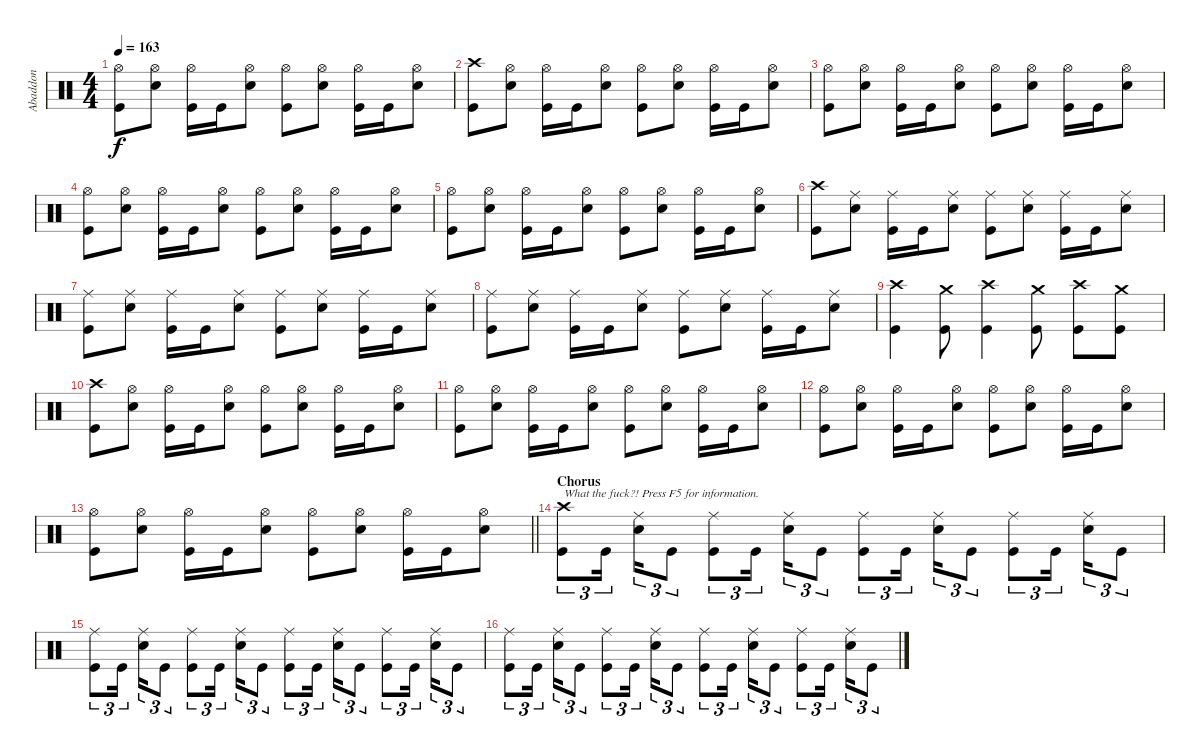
\track ("Abaddon" "Abaddon") {instrument percussion}
\staff {score}
\articulation defaults
\ts (4 4)
\tempo 163
\clef neutral
\ks c
("Hi-Hat (open)" "Kick (hit)").8{dy f} ("Hi-Hat (open)" "Electric Snare (hit)").8 ("Hi-Hat (open)" "Kick (hit)").16 "Kick (hit)".16 ("Hi-Hat (open)" "Electric Snare (hit)").8 ("Hi-Hat (open)" "Kick (hit)").8 ("Hi-Hat (open)" "Electric Snare (hit)").8 ("Hi-Hat (open)" "Kick (hit)").16 "Kick (hit)".16 ("Hi-Hat (open)" "Electric Snare (hit)").8 |
("Crash high (hit)" "Kick (hit)").8 ("Hi-Hat (open)" "Electric Snare (hit)").8 ("Hi-Hat (open)" "Kick (hit)").16 "Kick (hit)".16 ("Hi-Hat (open)" "Electric Snare (hit)").8 ("Hi-Hat (open)" "Kick (hit)").8 ("Hi-Hat (open)" "Electric Snare (hit)").8 ("Hi-Hat (open)" "Kick (hit)").16 "Kick (hit)".16 ("Hi-Hat (open)" "Electric Snare (hit)").8 |
("Hi-Hat (open)" "Kick (hit)").8 ("Hi-Hat (open)" "Electric Snare (hit)").8 ("Hi-Hat (open)" "Kick (hit)").16 "Kick (hit)".16 ("Hi-Hat (open)" "Electric Snare (hit)").8 ("Hi-Hat (open)" "Kick (hit)").8 ("Hi-Hat (open)" "Electric Snare (hit)").8 ("Hi-Hat (open)" "Kick (hit)").16 "Kick (hit)".16 ("Hi-Hat (open)" "Electric Snare (hit)").8 |
("Hi-Hat (open)" "Kick (hit)").8 ("Hi-Hat (open)" "Electric Snare (hit)").8 ("Hi-Hat (open)" "Kick (hit)").16 "Kick (hit)".16 ("Hi-Hat (open)" "Electric Snare (hit)").8 ("Hi-Hat (open)" "Kick (hit)").8 ("Hi-Hat (open)" "Electric Snare (hit)").8 ("Hi-Hat (open)" "Kick (hit)").16 "Kick (hit)".16 ("Hi-Hat (open)" "Electric Snare (hit)").8 |
("Hi-Hat (open)" "Kick (hit)").8 ("Hi-Hat (open)" "Electric Snare (hit)").8 ("Hi-Hat (open)" "Kick (hit)").16 "Kick (hit)".16 ("Hi-Hat (open)" "Electric Snare (hit)").8 ("Hi-Hat (open)" "Kick (hit)").8 ("Hi-Hat (open)" "Electric Snare (hit)").8 ("Hi-Hat (open)" "Kick (hit)").16 "Kick (hit)".16 ("Hi-Hat (open)" "Electric Snare (hit)").8 |
("Crash high (hit)" "Kick (hit)").8 ("Ride (middle)" "Electric Snare (hit)").8 ("Ride (middle)" "Kick (hit)").16 "Kick (hit)".16 ("Ride (middle)" "Electric Snare (hit)").8 ("Ride (middle)" "Kick (hit)").8 ("Ride (middle)" "Electric Snare (hit)").8 ("Ride (middle)" "Kick (hit)").16 "Kick (hit)".16 ("Ride (middle)" "Electric Snare (hit)").8 |
("Ride (middle)" "Kick (hit)").8 ("Ride (middle)" "Electric Snare (hit)").8 ("Ride (middle)" "Kick (hit)").16 "Kick (hit)".16 ("Ride (middle)" "Electric Snare (hit)").8 ("Ride (middle)" "Kick (hit)").8 ("Ride (middle)" "Electric Snare (hit)").8 ("Ride (middle)" "Kick (hit)").16 "Kick (hit)".16 ("Ride (middle)" "Electric Snare (hit)").8 |
("Ride (middle)" "Kick (hit)").8 ("Ride (middle)" "Electric Snare (hit)").8 ("Ride (middle)" "Kick (hit)").16 "Kick (hit)".16 ("Ride (middle)" "Electric Snare (hit)").8 ("Ride (middle)" "Kick (hit)").8 ("Ride (middle)" "Electric Snare (hit)").8 ("Ride (middle)" "Kick (hit)").16 "Kick (hit)".16 ("Ride (middle)" "Electric Snare (hit)").8 |
("Crash high (hit)" "Kick (hit)").4 ("Crash medium (hit)" "Kick (hit)").8 ("Crash high (hit)" "Kick (hit)").4 ("Crash medium (hit)" "Kick (hit)").8 ("Crash high (hit)" "Kick (hit)").8 ("Crash medium (hit)" "Kick (hit)").8 |
("Crash high (hit)" "Kick (hit)").8 ("Hi-Hat (open)" "Electric Snare (hit)").8 ("Hi-Hat (open)" "Kick (hit)").16 "Kick (hit)".16 ("Hi-Hat (open)" "Electric Snare (hit)").8 ("Hi-Hat (open)" "Kick (hit)").8 ("Hi-Hat (open)" "Electric Snare (hit)").8 ("Hi-Hat (open)" "Kick (hit)").16 "Kick (hit)".16 ("Hi-Hat (open)" "Electric Snare (hit)").8 |
("Hi-Hat (open)" "Kick (hit)").8 ("Hi-Hat (open)" "Electric Snare (hit)").8 ("Hi-Hat (open)" "Kick (hit)").16 "Kick (hit)".16 ("Hi-Hat (open)" "Electric Snare (hit)").8 ("Hi-Hat (open)" "Kick (hit)").8 ("Hi-Hat (open)" "Electric Snare (hit)").8 ("Hi-Hat (open)" "Kick (hit)").16 "Kick (hit)".16 ("Hi-Hat (open)" "Electric Snare (hit)").8 |
("Hi-Hat (open)" "Kick (hit)").8 ("Hi-Hat (open)" "Electric Snare (hit)").8 ("Hi-Hat (open)" "Kick (hit)").16 "Kick (hit)".16 ("Hi-Hat (open)" "Electric Snare (hit)").8 ("Hi-Hat (open)" "Kick (hit)").8 ("Hi-Hat (open)" "Electric Snare (hit)").8 ("Hi-Hat (open)" "Kick (hit)").16 "Kick (hit)".16 ("Hi-Hat (open)" "Electric Snare (hit)").8 |
\barLineRight lightlight
("Hi-Hat (open)" "Kick (hit)").8 ("Hi-Hat (open)" "Electric Snare (hit)").8 ("Hi-Hat (open)" "Kick (hit)").16 "Kick (hit)".16 ("Hi-Hat (open)" "Electric Snare (hit)").8 ("Hi-Hat (open)" "Kick (hit)").8 ("Hi-Hat (open)" "Electric Snare (hit)").8 ("Hi-Hat (open)" "Kick (hit)").16 "Kick (hit)".16 ("Hi-Hat (open)" "Electric Snare (hit)").8 |
\section ("" "Chorus")
("Crash high (hit)" "Kick (hit)").8{tu (3 2) txt "What the fuck?! Press F5 for information."} "Kick (hit)".16{tu (3 2) beam splitsecondary} ("Ride (middle)" "Electric Snare (hit)").16{tu (3 2)} "Kick (hit)".8{tu (3 2)} ("Ride (middle)" "Kick (hit)").8{tu (3 2)} "Kick (hit)".16{tu (3 2) beam splitsecondary} ("Ride (middle)" "Electric Snare (hit)").16{tu (3 2)} "Kick (hit)".8{tu (3 2)} ("Ride (middle)" "Kick (hit)").8{tu (3 2)} "Kick (hit)".16{tu (3 2) beam splitsecondary} ("Ride (middle)" "Electric Snare (hit)").16{tu (3 2)} "Kick (hit)".8{tu (3 2)} ("Ride (middle)" "Kick (hit)").8{tu (3 2)} "Kick (hit)".16{tu (3 2) beam splitsecondary} ("Ride (middle)" "Electric Snare (hit)").16{tu (3 2)} "Kick (hit)".8{tu (3 2)} |
("Ride (middle)" "Kick (hit)").8{tu (3 2)} "Kick (hit)".16{tu (3 2) beam splitsecondary} ("Ride (middle)" "Electric Snare (hit)").16{tu (3 2)} "Kick (hit)".8{tu (3 2)} ("Ride (middle)" "Kick (hit)").8{tu (3 2)} "Kick (hit)".16{tu (3 2) beam splitsecondary} ("Ride (middle)" "Electric Snare (hit)").16{tu (3 2)} "Kick (hit)".8{tu (3 2)} ("Ride (middle)" "Kick (hit)").8{tu (3 2)} "Kick (hit)".16{tu (3 2) beam splitsecondary} ("Ride (middle)" "Electric Snare (hit)").16{tu (3 2)} "Kick (hit)".8{tu (3 2)} ("Ride (middle)" "Kick (hit)").8{tu (3 2)} "Kick (hit)".16{tu (3 2) beam splitsecondary} ("Ride (middle)" "Electric Snare (hit)").16{tu (3 2)} "Kick (hit)".8{tu (3 2)} |
("Ride (middle)" "Kick (hit)").8{tu (3 2)} "Kick (hit)".16{tu (3 2) beam splitsecondary} ("Ride (middle)" "Electric Snare (hit)").16{tu (3 2)} "Kick (hit)".8{tu (3 2)} ("Ride (middle)" "Kick (hit)").8{tu (3 2)} "Kick (hit)".16{tu (3 2) beam splitsecondary} ("Ride (middle)" "Electric Snare (hit)").16{tu (3 2)} "Kick (hit)".8{tu (3 2)} ("Ride (middle)" "Kick (hit)").8{tu (3 2)} "Kick (hit)".16{tu (3 2) beam splitsecondary} ("Ride (middle)" "Electric Snare (hit)").16{tu (3 2)} "Kick (hit)".8{tu (3 2)} ("Ride (middle)" "Kick (hit)").8{tu (3 2)} "Kick (hit)".16{tu (3 2) beam splitsecondary} ("Ride (middle)" "Electric Snare (hit)").16{tu (3 2)} "Kick (hit)".8{tu (3 2)}
